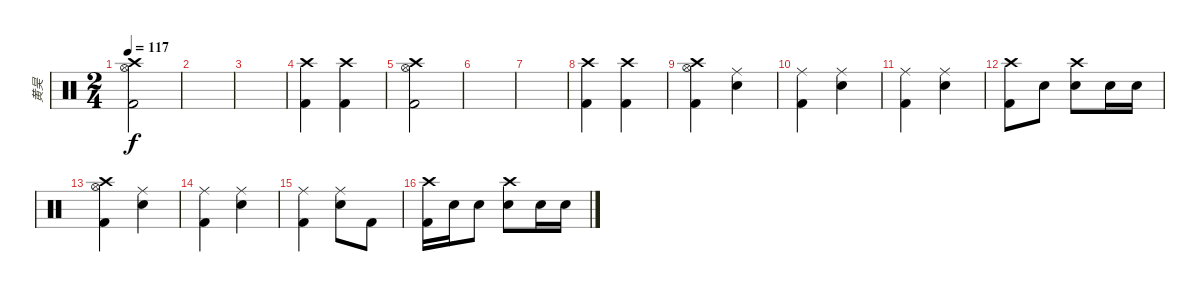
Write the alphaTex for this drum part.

\track ("黄昊" "黄昊") {instrument percussion}
\staff {score}
\articulation defaults
\ts (2 4)
\tempo 117
\clef neutral
\ks c
("Crash high (hit)" "Hi-Hat (open)" "Kick (hit) 2").2{dy f} |
|
|
("Crash high (hit)" "Kick (hit) 2").4 ("Crash high (hit)" "Kick (hit) 2").4 |
("Crash high (hit)" "Hi-Hat (open)" "Kick (hit) 2").2 |
|
|
("Crash high (hit)" "Kick (hit) 2").4 ("Crash high (hit)" "Kick (hit) 2").4 |
("Crash high (hit)" "Hi-Hat (open)" "Kick (hit) 2").4 ("Ride (middle)" "Snare (hit) 2").4 |
("Ride (middle)" "Kick (hit) 2").4 ("Ride (middle)" "Snare (hit) 2").4 |
("Ride (middle)" "Kick (hit) 2").4 ("Ride (middle)" "Snare (hit) 2").4 |
("Crash high (hit)" "Kick (hit) 2").8 "Snare (hit) 2".8 ("Crash high (hit)" "Snare (hit) 2").8 "Snare (hit) 2".16 "Snare (hit) 2".16 |
("Crash high (hit)" "Hi-Hat (open)" "Kick (hit) 2").4 ("Ride (middle)" "Snare (hit) 2").4 |
("Ride (middle)" "Kick (hit) 2").4 ("Ride (middle)" "Snare (hit) 2").4 |
("Ride (middle)" "Kick (hit) 2").4 ("Ride (middle)" "Snare (hit) 2").8 "Kick (hit) 2".8 |
("Crash high (hit)" "Kick (hit) 2").16 "Snare (hit) 2".16 "Snare (hit) 2".8 ("Crash high (hit)" "Snare (hit) 2").8 "Snare (hit) 2".16 "Snare (hit) 2".16
